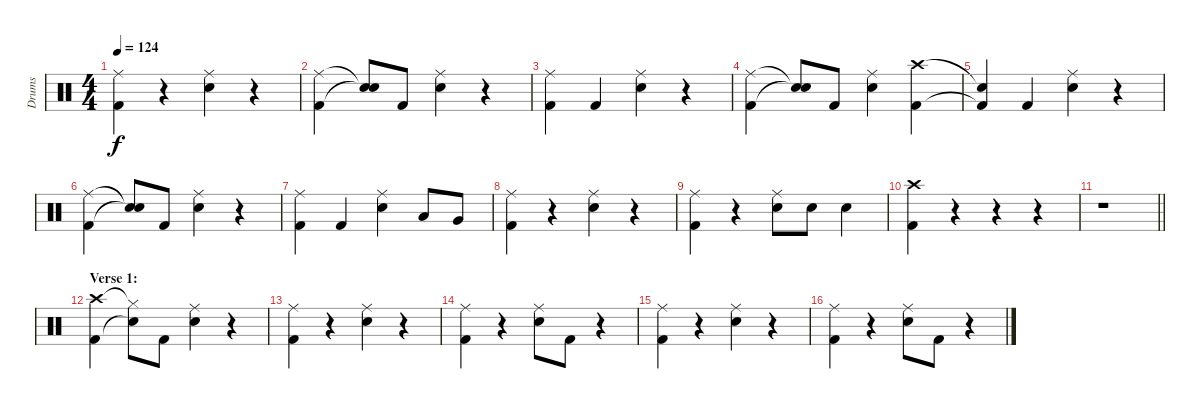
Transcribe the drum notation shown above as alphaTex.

\track ("Drums" "Drums") {instrument percussion}
\staff {score}
\articulation defaults
\ts (4 4)
\tempo 124
\clef neutral
\ks c
("Ride (middle)" "Kick (hit) 2").4{dy f} r.4 ("Ride (middle)" "Electric Snare (hit)").4 r.4 |
("Ride (middle)" "Kick (hit) 2").4 ("Snare (hit)"{t} "Snare (hit)"{t}).8 "Kick (hit) 2".8 ("Ride (middle)" "Electric Snare (hit)").4 r.4 |
("Ride (middle)" "Kick (hit) 2").4 "Kick (hit) 2".4 ("Ride (middle)" "Electric Snare (hit)").4 r.4 |
("Ride (middle)" "Kick (hit) 2").4 ("Snare (hit)"{t} "Snare (hit)"{t}).8 "Kick (hit) 2".8 ("Ride (middle)" "Electric Snare (hit)").4 ("Crash high (hit)" "Kick (hit) 2").4 |
("Snare (hit)"{t} "Kick (hit) 2"{t}).4 "Kick (hit) 2".4 ("Ride (middle)" "Electric Snare (hit)").4 r.4 |
("Ride (middle)" "Kick (hit) 2").4 ("Snare (hit)"{t} "Snare (hit)"{t}).8 "Kick (hit) 2".8 ("Ride (middle)" "Electric Snare (hit)").4 r.4 |
("Ride (middle)" "Kick (hit) 2").4 "Kick (hit) 2".4 ("Ride (middle)" "Electric Snare (hit)").4 "Low Tom (hit)".8 "Very Low Tom (hit)".8 |
("Ride (middle)" "Kick (hit) 2").4 r.4 ("Ride (middle)" "Electric Snare (hit)").4 r.4 |
("Ride (middle)" "Kick (hit) 2").4 r.4 ("Ride (middle)" "Electric Snare (hit)").8 "Electric Snare (hit)".8 "Electric Snare (hit)".4 |
("Crash high (hit)" "Kick (hit) 2").4 r.4 r.4 r.4 |
\barLineRight lightlight
r.1 |
\section ("" "Verse 1:")
("Crash high (hit)" "Kick (hit) 2").4 ("Hi-Hat (closed)"{t} "Snare (hit)"{t}).8 "Kick (hit) 2".8 ("Ride (middle)" "Electric Snare (hit)").4 r.4 |
("Ride (middle)" "Kick (hit) 2").4 r.4 ("Ride (middle)" "Electric Snare (hit)").4 r.4 |
("Ride (middle)" "Kick (hit) 2").4 r.4 ("Ride (middle)" "Electric Snare (hit)").8 "Kick (hit) 2".8 r.4 |
("Ride (middle)" "Kick (hit) 2").4 r.4 ("Ride (middle)" "Electric Snare (hit)").4 r.4 |
("Ride (middle)" "Kick (hit) 2").4 r.4 ("Ride (middle)" "Electric Snare (hit)").8 "Kick (hit) 2".8 r.4
